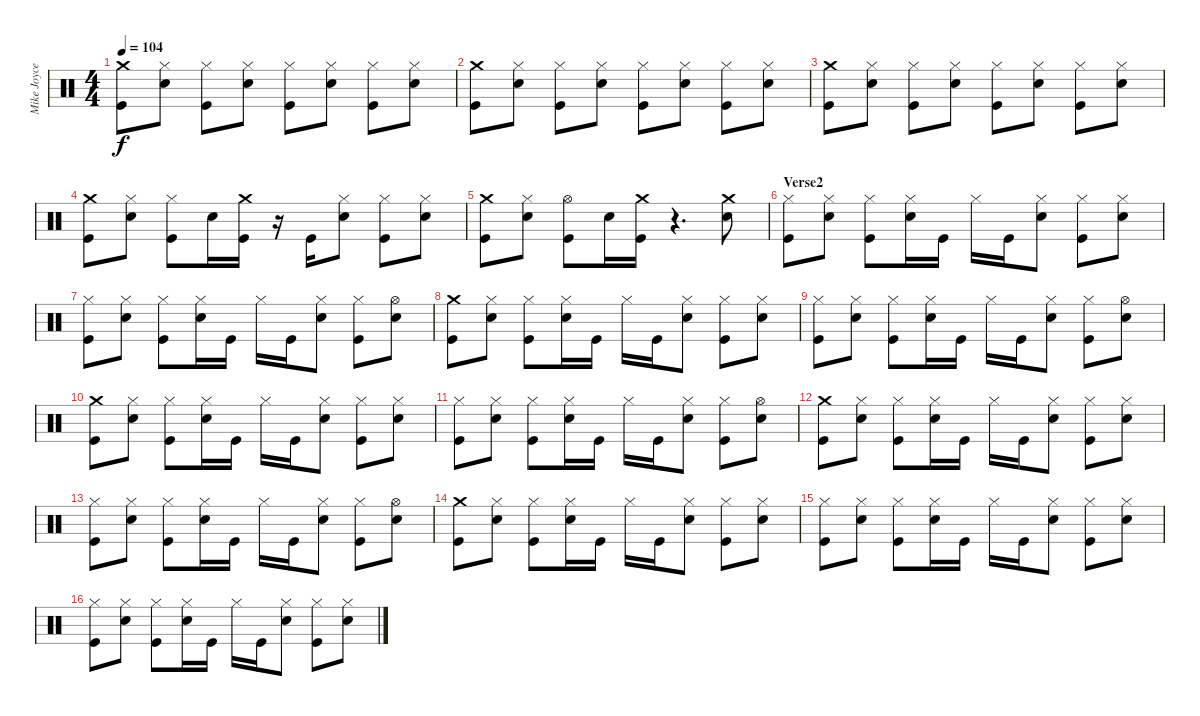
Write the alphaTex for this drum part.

\track ("Mike Joyce|Drums" "Mike Joyce") {instrument percussion}
\staff {score}
\articulation defaults
\ts (4 4)
\tempo 104
\clef neutral
\ks c
("Crash medium (hit)" "Kick (hit)").8{dy f} ("Hi-Hat (closed)" "Snare (hit) 2").8 ("Hi-Hat (closed)" "Kick (hit)").8 ("Hi-Hat (closed)" "Snare (hit) 2").8 ("Hi-Hat (closed)" "Kick (hit)").8 ("Hi-Hat (closed)" "Snare (hit) 2").8 ("Hi-Hat (closed)" "Kick (hit)").8 ("Hi-Hat (closed)" "Snare (hit) 2").8 |
("Crash medium (hit)" "Kick (hit)").8 ("Hi-Hat (closed)" "Snare (hit) 2").8 ("Hi-Hat (closed)" "Kick (hit)").8 ("Hi-Hat (closed)" "Snare (hit) 2").8 ("Hi-Hat (closed)" "Kick (hit)").8 ("Hi-Hat (closed)" "Snare (hit) 2").8 ("Hi-Hat (closed)" "Kick (hit)").8 ("Hi-Hat (closed)" "Snare (hit) 2").8 |
("Crash medium (hit)" "Kick (hit)").8 ("Hi-Hat (closed)" "Snare (hit) 2").8 ("Hi-Hat (closed)" "Kick (hit)").8 ("Hi-Hat (closed)" "Snare (hit) 2").8 ("Hi-Hat (closed)" "Kick (hit)").8 ("Hi-Hat (closed)" "Snare (hit) 2").8 ("Hi-Hat (closed)" "Kick (hit)").8 ("Hi-Hat (closed)" "Snare (hit) 2").8 |
("Crash medium (hit)" "Kick (hit)").8 ("Hi-Hat (closed)" "Snare (hit) 2").8 ("Hi-Hat (closed)" "Kick (hit)").8 "Snare (hit) 2".16 ("Crash medium (hit)" "Kick (hit)").16 r.16 "Kick (hit)".16 ("Hi-Hat (closed)" "Snare (hit) 2").8 ("Hi-Hat (closed)" "Kick (hit)").8 ("Hi-Hat (closed)" "Snare (hit) 2").8 |
("Crash medium (hit)" "Kick (hit)").8 ("Hi-Hat (closed)" "Snare (hit) 2").8 ("Hi-Hat (open)" "Kick (hit)").8 "Snare (hit) 2".16 ("Crash medium (hit)" "Kick (hit)").16 r.4{d} ("Crash medium (hit)" "Snare (hit) 2").8 |
\section ("" "Verse2")
("Hi-Hat (closed)" "Kick (hit)").8 ("Hi-Hat (closed)" "Snare (hit) 2").8 ("Hi-Hat (closed)" "Kick (hit)").8 ("Hi-Hat (closed)" "Snare (hit) 2").16 "Kick (hit)".16 "Hi-Hat (closed)".16 "Kick (hit)".16 ("Hi-Hat (closed)" "Snare (hit) 2").8 ("Hi-Hat (closed)" "Kick (hit)").8 ("Hi-Hat (closed)" "Snare (hit) 2").8 |
("Hi-Hat (closed)" "Kick (hit)").8 ("Hi-Hat (closed)" "Snare (hit) 2").8 ("Hi-Hat (closed)" "Kick (hit)").8 ("Hi-Hat (closed)" "Snare (hit) 2").16 "Kick (hit)".16 "Hi-Hat (closed)".16 "Kick (hit)".16 ("Hi-Hat (closed)" "Snare (hit) 2").8 ("Hi-Hat (closed)" "Kick (hit)").8 ("Hi-Hat (open)" "Snare (hit) 2").8 |
("Crash medium (hit)" "Kick (hit)").8 ("Hi-Hat (closed)" "Snare (hit) 2").8 ("Hi-Hat (closed)" "Kick (hit)").8 ("Hi-Hat (closed)" "Snare (hit) 2").16 "Kick (hit)".16 "Hi-Hat (closed)".16 "Kick (hit)".16 ("Hi-Hat (closed)" "Snare (hit) 2").8 ("Hi-Hat (closed)" "Kick (hit)").8 ("Hi-Hat (closed)" "Snare (hit) 2").8 |
("Hi-Hat (closed)" "Kick (hit)").8 ("Hi-Hat (closed)" "Snare (hit) 2").8 ("Hi-Hat (closed)" "Kick (hit)").8 ("Hi-Hat (closed)" "Snare (hit) 2").16 "Kick (hit)".16 "Hi-Hat (closed)".16 "Kick (hit)".16 ("Hi-Hat (closed)" "Snare (hit) 2").8 ("Hi-Hat (closed)" "Kick (hit)").8 ("Hi-Hat (open)" "Snare (hit) 2").8 |
("Crash medium (hit)" "Kick (hit)").8 ("Hi-Hat (closed)" "Snare (hit) 2").8 ("Hi-Hat (closed)" "Kick (hit)").8 ("Hi-Hat (closed)" "Snare (hit) 2").16 "Kick (hit)".16 "Hi-Hat (closed)".16 "Kick (hit)".16 ("Hi-Hat (closed)" "Snare (hit) 2").8 ("Hi-Hat (closed)" "Kick (hit)").8 ("Hi-Hat (closed)" "Snare (hit) 2").8 |
("Hi-Hat (closed)" "Kick (hit)").8 ("Hi-Hat (closed)" "Snare (hit) 2").8 ("Hi-Hat (closed)" "Kick (hit)").8 ("Hi-Hat (closed)" "Snare (hit) 2").16 "Kick (hit)".16 "Hi-Hat (closed)".16 "Kick (hit)".16 ("Hi-Hat (closed)" "Snare (hit) 2").8 ("Hi-Hat (closed)" "Kick (hit)").8 ("Hi-Hat (open)" "Snare (hit) 2").8 |
("Crash medium (hit)" "Kick (hit)").8 ("Hi-Hat (closed)" "Snare (hit) 2").8 ("Hi-Hat (closed)" "Kick (hit)").8 ("Hi-Hat (closed)" "Snare (hit) 2").16 "Kick (hit)".16 "Hi-Hat (closed)".16 "Kick (hit)".16 ("Hi-Hat (closed)" "Snare (hit) 2").8 ("Hi-Hat (closed)" "Kick (hit)").8 ("Hi-Hat (closed)" "Snare (hit) 2").8 |
("Hi-Hat (closed)" "Kick (hit)").8 ("Hi-Hat (closed)" "Snare (hit) 2").8 ("Hi-Hat (closed)" "Kick (hit)").8 ("Hi-Hat (closed)" "Snare (hit) 2").16 "Kick (hit)".16 "Hi-Hat (closed)".16 "Kick (hit)".16 ("Hi-Hat (closed)" "Snare (hit) 2").8 ("Hi-Hat (closed)" "Kick (hit)").8 ("Hi-Hat (open)" "Snare (hit) 2").8 |
("Crash medium (hit)" "Kick (hit)").8 ("Hi-Hat (closed)" "Snare (hit) 2").8 ("Hi-Hat (closed)" "Kick (hit)").8 ("Hi-Hat (closed)" "Snare (hit) 2").16 "Kick (hit)".16 "Hi-Hat (closed)".16 "Kick (hit)".16 ("Hi-Hat (closed)" "Snare (hit) 2").8 ("Hi-Hat (closed)" "Kick (hit)").8 ("Hi-Hat (closed)" "Snare (hit) 2").8 |
("Hi-Hat (closed)" "Kick (hit)").8 ("Hi-Hat (closed)" "Snare (hit) 2").8 ("Hi-Hat (closed)" "Kick (hit)").8 ("Hi-Hat (closed)" "Snare (hit) 2").16 "Kick (hit)".16 "Hi-Hat (closed)".16 "Kick (hit)".16 ("Hi-Hat (closed)" "Snare (hit) 2").8 ("Hi-Hat (closed)" "Kick (hit)").8 ("Hi-Hat (closed)" "Snare (hit) 2").8 |
("Hi-Hat (closed)" "Kick (hit)").8 ("Hi-Hat (closed)" "Snare (hit) 2").8 ("Hi-Hat (closed)" "Kick (hit)").8 ("Hi-Hat (closed)" "Snare (hit) 2").16 "Kick (hit)".16 "Hi-Hat (closed)".16 "Kick (hit)".16 ("Hi-Hat (closed)" "Snare (hit) 2").8 ("Hi-Hat (closed)" "Kick (hit)").8 ("Hi-Hat (closed)" "Snare (hit) 2").8
